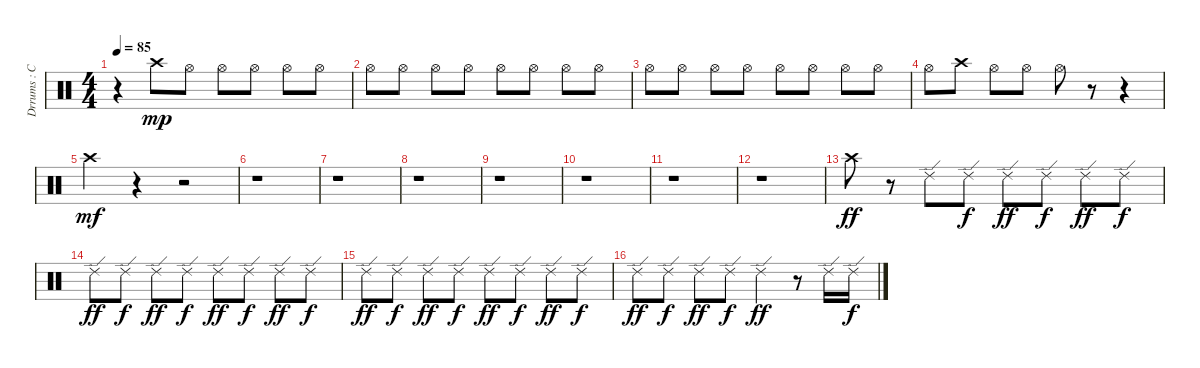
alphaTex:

\track ("Drrums : Cymbals" "Drrums : C") {instrument percussion}
\staff {score}
\articulation defaults
\ts (4 4)
\tempo 85
\clef neutral
\ks c
r.4{dy mp} "Crash high (hit)".8 "Hi-Hat (open)".8 "Hi-Hat (open)".8 "Hi-Hat (open)".8 "Hi-Hat (open)".8 "Hi-Hat (open)".8 |
"Hi-Hat (open)".8 "Hi-Hat (open)".8 "Hi-Hat (open)".8 "Hi-Hat (open)".8 "Hi-Hat (open)".8 "Hi-Hat (open)".8 "Hi-Hat (open)".8 "Hi-Hat (open)".8 |
"Hi-Hat (open)".8 "Hi-Hat (open)".8 "Hi-Hat (open)".8 "Hi-Hat (open)".8 "Hi-Hat (open)".8 "Hi-Hat (open)".8 "Hi-Hat (open)".8 "Hi-Hat (open)".8 |
"Hi-Hat (open)".8 "Crash high (hit)".8 "Hi-Hat (open)".8 "Hi-Hat (open)".8 "Hi-Hat (open)".8 r.8 r.4 |
"Crash high (hit)".4{dy mf} r.4 r.2 |
r.1 |
r.1 |
r.1 |
r.1 |
r.1 |
r.1 |
r.1 |
"Crash high (hit)".8{dy ff} r.8 "Ride (edge) 2".8 "Ride (edge) 2".8{dy f} "Ride (edge) 2".8{dy ff} "Ride (edge) 2".8{dy f} "Ride (edge) 2".8{dy ff} "Ride (edge) 2".8{dy f} |
"Ride (edge) 2".8{dy ff} "Ride (edge) 2".8{dy f} "Ride (edge) 2".8{dy ff} "Ride (edge) 2".8{dy f} "Ride (edge) 2".8{dy ff} "Ride (edge) 2".8{dy f} "Ride (edge) 2".8{dy ff} "Ride (edge) 2".8{dy f} |
"Ride (edge) 2".8{dy ff} "Ride (edge) 2".8{dy f} "Ride (edge) 2".8{dy ff} "Ride (edge) 2".8{dy f} "Ride (edge) 2".8{dy ff} "Ride (edge) 2".8{dy f} "Ride (edge) 2".8{dy ff} "Ride (edge) 2".8{dy f} |
"Ride (edge) 2".8{dy ff} "Ride (edge) 2".8{dy f} "Ride (edge) 2".8{dy ff} "Ride (edge) 2".8{dy f} "Ride (edge) 2".4{dy ff} r.8 "Ride (edge) 2".16 "Ride (edge) 2".16{dy f}
